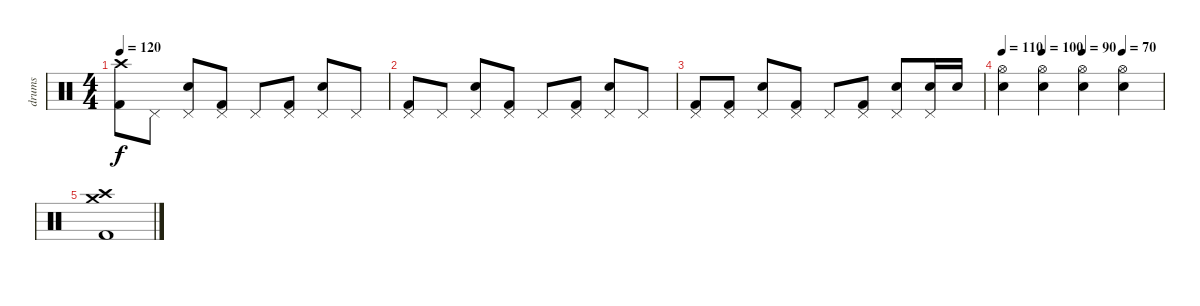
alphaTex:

\track ("drums" "drums") {instrument percussion}
\staff {score}
\articulation defaults
\ts (4 4)
\tempo 120
\clef neutral
\ks c
("Crash high (hit)" "Kick (hit) 2").8{dy f} "Pedal Hi-Hat (hit)".8 ("Pedal Hi-Hat (hit)" "Electric Snare (hit)").8 ("Pedal Hi-Hat (hit)" "Kick (hit) 2").8 "Pedal Hi-Hat (hit)".8 ("Pedal Hi-Hat (hit)" "Kick (hit) 2").8 ("Pedal Hi-Hat (hit)" "Electric Snare (hit)").8 "Pedal Hi-Hat (hit)".8 |
("Pedal Hi-Hat (hit)" "Kick (hit) 2").8 "Pedal Hi-Hat (hit)".8 ("Pedal Hi-Hat (hit)" "Electric Snare (hit)").8 ("Pedal Hi-Hat (hit)" "Kick (hit) 2").8 "Pedal Hi-Hat (hit)".8 ("Pedal Hi-Hat (hit)" "Kick (hit) 2").8 ("Pedal Hi-Hat (hit)" "Electric Snare (hit)").8 "Pedal Hi-Hat (hit)".8 |
("Pedal Hi-Hat (hit)" "Kick (hit) 2").8 ("Pedal Hi-Hat (hit)" "Kick (hit) 2").8 ("Pedal Hi-Hat (hit)" "Electric Snare (hit)").8 ("Pedal Hi-Hat (hit)" "Kick (hit) 2").8 "Pedal Hi-Hat (hit)".8 ("Pedal Hi-Hat (hit)" "Kick (hit) 2").8 ("Pedal Hi-Hat (hit)" "Electric Snare (hit)").8 ("Pedal Hi-Hat (hit)" "Electric Snare (hit)").16 "Electric Snare (hit)".16 |
\tempo 110
\tempo (100 0.25)
\tempo (90 0.5)
\tempo (70 0.75)
("Hi-Hat (open)" "Electric Snare (hit)").4 ("Hi-Hat (open)" "Electric Snare (hit)").4 ("Hi-Hat (open)" "Electric Snare (hit)").4 ("Hi-Hat (open)" "Electric Snare (hit)").4 |
("Crash medium (hit)" "Crash high (hit)" "Kick (hit) 2").1
